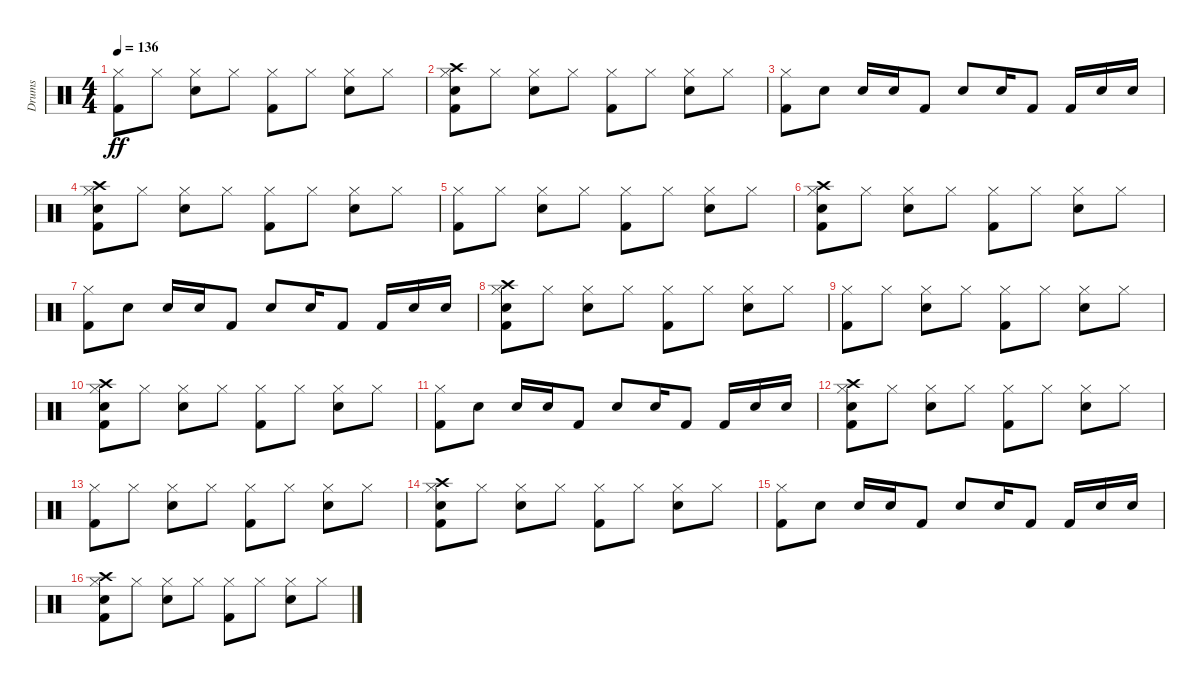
\track ("Drums" "Drums") {instrument percussion}
\staff {score}
\articulation defaults
\ts (4 4)
\tempo 136
\clef neutral
\ks c
("Kick (hit) 2" "Hi-Hat (closed)").8{dy ff} "Hi-Hat (closed)".8 ("Snare (hit) 2" "Hi-Hat (closed)").8 "Hi-Hat (closed)".8 ("Kick (hit) 2" "Hi-Hat (closed)").8 "Hi-Hat (closed)".8 ("Snare (hit) 2" "Hi-Hat (closed)").8 "Hi-Hat (closed)".8 |
("Kick (hit) 2" "Snare (hit) 2" "Hi-Hat (closed)" "Crash high (hit)").8 "Hi-Hat (closed)".8 ("Snare (hit) 2" "Hi-Hat (closed)").8 "Hi-Hat (closed)".8 ("Kick (hit) 2" "Hi-Hat (closed)").8 "Hi-Hat (closed)".8 ("Snare (hit) 2" "Hi-Hat (closed)").8 "Hi-Hat (closed)".8 |
("Kick (hit) 2" "Hi-Hat (closed)").8 "Snare (hit) 2".8 "Snare (hit) 2".16 "Snare (hit) 2".16 "Kick (hit) 2".8 "Snare (hit) 2".8 "Snare (hit) 2".16 "Kick (hit) 2".8 "Kick (hit) 2".16 "Snare (hit) 2".16 "Snare (hit) 2".16 |
("Kick (hit) 2" "Snare (hit) 2" "Hi-Hat (closed)" "Crash high (hit)").8 "Hi-Hat (closed)".8 ("Snare (hit) 2" "Hi-Hat (closed)").8 "Hi-Hat (closed)".8 ("Kick (hit) 2" "Hi-Hat (closed)").8 "Hi-Hat (closed)".8 ("Snare (hit) 2" "Hi-Hat (closed)").8 "Hi-Hat (closed)".8 |
("Kick (hit) 2" "Hi-Hat (closed)").8 "Hi-Hat (closed)".8 ("Snare (hit) 2" "Hi-Hat (closed)").8 "Hi-Hat (closed)".8 ("Kick (hit) 2" "Hi-Hat (closed)").8 "Hi-Hat (closed)".8 ("Snare (hit) 2" "Hi-Hat (closed)").8 "Hi-Hat (closed)".8 |
("Kick (hit) 2" "Snare (hit) 2" "Hi-Hat (closed)" "Crash high (hit)").8 "Hi-Hat (closed)".8 ("Snare (hit) 2" "Hi-Hat (closed)").8 "Hi-Hat (closed)".8 ("Kick (hit) 2" "Hi-Hat (closed)").8 "Hi-Hat (closed)".8 ("Snare (hit) 2" "Hi-Hat (closed)").8 "Hi-Hat (closed)".8 |
("Kick (hit) 2" "Hi-Hat (closed)").8 "Snare (hit) 2".8 "Snare (hit) 2".16 "Snare (hit) 2".16 "Kick (hit) 2".8 "Snare (hit) 2".8 "Snare (hit) 2".16 "Kick (hit) 2".8 "Kick (hit) 2".16 "Snare (hit) 2".16 "Snare (hit) 2".16 |
("Kick (hit) 2" "Snare (hit) 2" "Hi-Hat (closed)" "Crash high (hit)").8 "Hi-Hat (closed)".8 ("Snare (hit) 2" "Hi-Hat (closed)").8 "Hi-Hat (closed)".8 ("Kick (hit) 2" "Hi-Hat (closed)").8 "Hi-Hat (closed)".8 ("Snare (hit) 2" "Hi-Hat (closed)").8 "Hi-Hat (closed)".8 |
("Kick (hit) 2" "Hi-Hat (closed)").8 "Hi-Hat (closed)".8 ("Snare (hit) 2" "Hi-Hat (closed)").8 "Hi-Hat (closed)".8 ("Kick (hit) 2" "Hi-Hat (closed)").8 "Hi-Hat (closed)".8 ("Snare (hit) 2" "Hi-Hat (closed)").8 "Hi-Hat (closed)".8 |
("Kick (hit) 2" "Snare (hit) 2" "Hi-Hat (closed)" "Crash high (hit)").8 "Hi-Hat (closed)".8 ("Snare (hit) 2" "Hi-Hat (closed)").8 "Hi-Hat (closed)".8 ("Kick (hit) 2" "Hi-Hat (closed)").8 "Hi-Hat (closed)".8 ("Snare (hit) 2" "Hi-Hat (closed)").8 "Hi-Hat (closed)".8 |
("Kick (hit) 2" "Hi-Hat (closed)").8 "Snare (hit) 2".8 "Snare (hit) 2".16 "Snare (hit) 2".16 "Kick (hit) 2".8 "Snare (hit) 2".8 "Snare (hit) 2".16 "Kick (hit) 2".8 "Kick (hit) 2".16 "Snare (hit) 2".16 "Snare (hit) 2".16 |
("Kick (hit) 2" "Snare (hit) 2" "Hi-Hat (closed)" "Crash high (hit)").8 "Hi-Hat (closed)".8 ("Snare (hit) 2" "Hi-Hat (closed)").8 "Hi-Hat (closed)".8 ("Kick (hit) 2" "Hi-Hat (closed)").8 "Hi-Hat (closed)".8 ("Snare (hit) 2" "Hi-Hat (closed)").8 "Hi-Hat (closed)".8 |
("Kick (hit) 2" "Hi-Hat (closed)").8 "Hi-Hat (closed)".8 ("Snare (hit) 2" "Hi-Hat (closed)").8 "Hi-Hat (closed)".8 ("Kick (hit) 2" "Hi-Hat (closed)").8 "Hi-Hat (closed)".8 ("Snare (hit) 2" "Hi-Hat (closed)").8 "Hi-Hat (closed)".8 |
("Kick (hit) 2" "Snare (hit) 2" "Hi-Hat (closed)" "Crash high (hit)").8 "Hi-Hat (closed)".8 ("Snare (hit) 2" "Hi-Hat (closed)").8 "Hi-Hat (closed)".8 ("Kick (hit) 2" "Hi-Hat (closed)").8 "Hi-Hat (closed)".8 ("Snare (hit) 2" "Hi-Hat (closed)").8 "Hi-Hat (closed)".8 |
("Kick (hit) 2" "Hi-Hat (closed)").8 "Snare (hit) 2".8 "Snare (hit) 2".16 "Snare (hit) 2".16 "Kick (hit) 2".8 "Snare (hit) 2".8 "Snare (hit) 2".16 "Kick (hit) 2".8 "Kick (hit) 2".16 "Snare (hit) 2".16 "Snare (hit) 2".16 |
("Kick (hit) 2" "Snare (hit) 2" "Hi-Hat (closed)" "Crash high (hit)").8 "Hi-Hat (closed)".8 ("Snare (hit) 2" "Hi-Hat (closed)").8 "Hi-Hat (closed)".8 ("Kick (hit) 2" "Hi-Hat (closed)").8 "Hi-Hat (closed)".8 ("Snare (hit) 2" "Hi-Hat (closed)").8 "Hi-Hat (closed)".8
